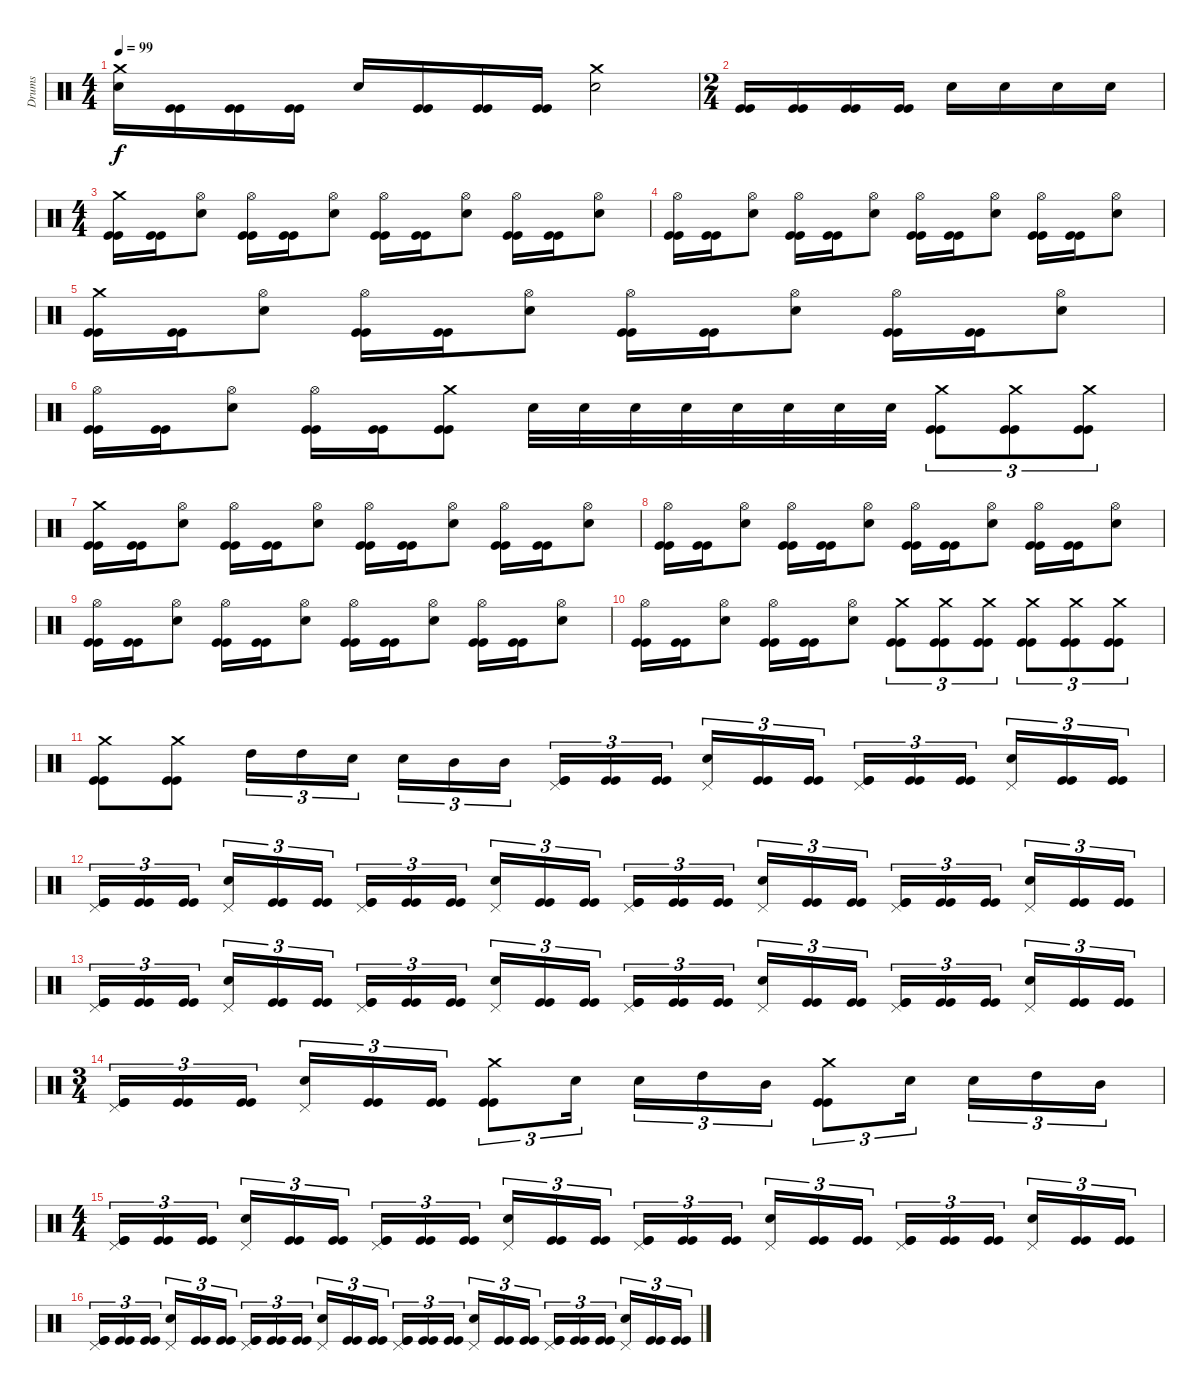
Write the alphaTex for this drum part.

\track ("Drums" "Drums") {instrument percussion}
\staff {score}
\articulation defaults
\ts (4 4)
\tempo 99
\clef neutral
\ks c
("Crash medium (hit)" "Snare (hit) 2").16{dy f} ("Kick (hit)" "Kick (hit)").16 ("Kick (hit)" "Kick (hit)").16 ("Kick (hit)" "Kick (hit)").16 "Snare (hit) 2".16 ("Kick (hit)" "Kick (hit)").16 ("Kick (hit)" "Kick (hit)").16 ("Kick (hit)" "Kick (hit)").16 ("Crash medium (hit)" "Snare (hit) 2").2 |
\ts (2 4)
("Kick (hit)" "Kick (hit)").16 ("Kick (hit)" "Kick (hit)").16 ("Kick (hit)" "Kick (hit)").16 ("Kick (hit)" "Kick (hit)").16 "Snare (hit) 2".16 "Snare (hit) 2".16 "Snare (hit) 2".16 "Snare (hit) 2".16 |
\ts (4 4)
("Crash medium (hit)" "Kick (hit)" "Kick (hit)").16 ("Kick (hit)" "Kick (hit)").16 ("Hi-Hat (open)" "Snare (hit) 2").8 ("Hi-Hat (open)" "Kick (hit)" "Kick (hit)").16 ("Kick (hit)" "Kick (hit)").16 ("Hi-Hat (open)" "Snare (hit) 2").8 ("Hi-Hat (open)" "Kick (hit)" "Kick (hit)").16 ("Kick (hit)" "Kick (hit)").16 ("Hi-Hat (open)" "Snare (hit) 2").8 ("Hi-Hat (open)" "Kick (hit)" "Kick (hit)").16 ("Kick (hit)" "Kick (hit)").16 ("Hi-Hat (open)" "Snare (hit) 2").8 |
("Hi-Hat (open)" "Kick (hit)" "Kick (hit)").16 ("Kick (hit)" "Kick (hit)").16 ("Hi-Hat (open)" "Snare (hit) 2").8 ("Hi-Hat (open)" "Kick (hit)" "Kick (hit)").16 ("Kick (hit)" "Kick (hit)").16 ("Hi-Hat (open)" "Snare (hit) 2").8 ("Hi-Hat (open)" "Kick (hit)" "Kick (hit)").16 ("Kick (hit)" "Kick (hit)").16 ("Hi-Hat (open)" "Snare (hit) 2").8 ("Hi-Hat (open)" "Kick (hit)" "Kick (hit)").16 ("Kick (hit)" "Kick (hit)").16 ("Hi-Hat (open)" "Snare (hit) 2").8 |
("Crash medium (hit)" "Kick (hit)" "Kick (hit)").16 ("Kick (hit)" "Kick (hit)").16 ("Hi-Hat (open)" "Snare (hit) 2").8 ("Hi-Hat (open)" "Kick (hit)" "Kick (hit)").16 ("Kick (hit)" "Kick (hit)").16 ("Hi-Hat (open)" "Snare (hit) 2").8 ("Hi-Hat (open)" "Kick (hit)" "Kick (hit)").16 ("Kick (hit)" "Kick (hit)").16 ("Hi-Hat (open)" "Snare (hit) 2").8 ("Hi-Hat (open)" "Kick (hit)" "Kick (hit)").16 ("Kick (hit)" "Kick (hit)").16 ("Hi-Hat (open)" "Snare (hit) 2").8 |
("Hi-Hat (open)" "Kick (hit)" "Kick (hit)").16 ("Kick (hit)" "Kick (hit)").16 ("Hi-Hat (open)" "Snare (hit) 2").8 ("Hi-Hat (open)" "Kick (hit)" "Kick (hit)").16 ("Kick (hit)" "Kick (hit)").16 ("Crash medium (hit)" "Kick (hit)" "Kick (hit)").8 "Snare (hit) 2".32 "Snare (hit) 2".32 "Snare (hit) 2".32 "Snare (hit) 2".32 "Snare (hit) 2".32 "Snare (hit) 2".32 "Snare (hit) 2".32 "Snare (hit) 2".32 ("Crash medium (hit)" "Kick (hit)" "Kick (hit)").8{tu (3 2)} ("Crash medium (hit)" "Kick (hit)" "Kick (hit)").8{tu (3 2)} ("Crash medium (hit)" "Kick (hit)" "Kick (hit)").8{tu (3 2)} |
("Crash medium (hit)" "Kick (hit)" "Kick (hit)").16 ("Kick (hit)" "Kick (hit)").16 ("Hi-Hat (open)" "Snare (hit) 2").8 ("Hi-Hat (open)" "Kick (hit)" "Kick (hit)").16 ("Kick (hit)" "Kick (hit)").16 ("Hi-Hat (open)" "Snare (hit) 2").8 ("Hi-Hat (open)" "Kick (hit)" "Kick (hit)").16 ("Kick (hit)" "Kick (hit)").16 ("Hi-Hat (open)" "Snare (hit) 2").8 ("Hi-Hat (open)" "Kick (hit)" "Kick (hit)").16 ("Kick (hit)" "Kick (hit)").16 ("Hi-Hat (open)" "Snare (hit) 2").8 |
("Hi-Hat (open)" "Kick (hit)" "Kick (hit)").16 ("Kick (hit)" "Kick (hit)").16 ("Hi-Hat (open)" "Snare (hit) 2").8 ("Hi-Hat (open)" "Kick (hit)" "Kick (hit)").16 ("Kick (hit)" "Kick (hit)").16 ("Hi-Hat (open)" "Snare (hit) 2").8 ("Hi-Hat (open)" "Kick (hit)" "Kick (hit)").16 ("Kick (hit)" "Kick (hit)").16 ("Hi-Hat (open)" "Snare (hit) 2").8 ("Hi-Hat (open)" "Kick (hit)" "Kick (hit)").16 ("Kick (hit)" "Kick (hit)").16 ("Hi-Hat (open)" "Snare (hit) 2").8 |
("Hi-Hat (open)" "Kick (hit)" "Kick (hit)").16 ("Kick (hit)" "Kick (hit)").16 ("Hi-Hat (open)" "Snare (hit) 2").8 ("Hi-Hat (open)" "Kick (hit)" "Kick (hit)").16 ("Kick (hit)" "Kick (hit)").16 ("Hi-Hat (open)" "Snare (hit) 2").8 ("Hi-Hat (open)" "Kick (hit)" "Kick (hit)").16 ("Kick (hit)" "Kick (hit)").16 ("Hi-Hat (open)" "Snare (hit) 2").8 ("Hi-Hat (open)" "Kick (hit)" "Kick (hit)").16 ("Kick (hit)" "Kick (hit)").16 ("Hi-Hat (open)" "Snare (hit) 2").8 |
("Hi-Hat (open)" "Kick (hit)" "Kick (hit)").16 ("Kick (hit)" "Kick (hit)").16 ("Hi-Hat (open)" "Snare (hit) 2").8 ("Hi-Hat (open)" "Kick (hit)" "Kick (hit)").16 ("Kick (hit)" "Kick (hit)").16 ("Hi-Hat (open)" "Snare (hit) 2").8 ("Crash medium (hit)" "Kick (hit)" "Kick (hit)").8{tu (3 2)} ("Crash medium (hit)" "Kick (hit)" "Kick (hit)").8{tu (3 2)} ("Crash medium (hit)" "Kick (hit)" "Kick (hit)").8{tu (3 2)} ("Crash medium (hit)" "Kick (hit)" "Kick (hit)").8{tu (3 2)} ("Crash medium (hit)" "Kick (hit)" "Kick (hit)").8{tu (3 2)} ("Crash medium (hit)" "Kick (hit)" "Kick (hit)").8{tu (3 2)} |
("Crash medium (hit)" "Kick (hit)" "Kick (hit)").8 ("Crash medium (hit)" "Kick (hit)" "Kick (hit)").8 "High Tom (hit)".16{tu (3 2)} "High Tom (hit)".16{tu (3 2)} "Snare (hit) 2".16{tu (3 2)} "Snare (hit) 2".16{tu (3 2)} "Mid Tom (hit)".16{tu (3 2)} "Mid Tom (hit)".16{tu (3 2)} ("Pedal Hi-Hat (hit)" "Kick (hit)" "Kick (hit)").16{tu (3 2)} ("Kick (hit)" "Kick (hit)").16{tu (3 2)} ("Kick (hit)" "Kick (hit)").16{tu (3 2)} ("Pedal Hi-Hat (hit)" "Snare (hit) 2").16{tu (3 2)} ("Kick (hit)" "Kick (hit)").16{tu (3 2)} ("Kick (hit)" "Kick (hit)").16{tu (3 2)} ("Pedal Hi-Hat (hit)" "Kick (hit)" "Kick (hit)").16{tu (3 2)} ("Kick (hit)" "Kick (hit)").16{tu (3 2)} ("Kick (hit)" "Kick (hit)").16{tu (3 2)} ("Pedal Hi-Hat (hit)" "Snare (hit) 2").16{tu (3 2)} ("Kick (hit)" "Kick (hit)").16{tu (3 2)} ("Kick (hit)" "Kick (hit)").16{tu (3 2)} |
("Pedal Hi-Hat (hit)" "Kick (hit)" "Kick (hit)").16{tu (3 2)} ("Kick (hit)" "Kick (hit)").16{tu (3 2)} ("Kick (hit)" "Kick (hit)").16{tu (3 2)} ("Pedal Hi-Hat (hit)" "Snare (hit) 2").16{tu (3 2)} ("Kick (hit)" "Kick (hit)").16{tu (3 2)} ("Kick (hit)" "Kick (hit)").16{tu (3 2)} ("Pedal Hi-Hat (hit)" "Kick (hit)" "Kick (hit)").16{tu (3 2)} ("Kick (hit)" "Kick (hit)").16{tu (3 2)} ("Kick (hit)" "Kick (hit)").16{tu (3 2)} ("Pedal Hi-Hat (hit)" "Snare (hit) 2").16{tu (3 2)} ("Kick (hit)" "Kick (hit)").16{tu (3 2)} ("Kick (hit)" "Kick (hit)").16{tu (3 2)} ("Pedal Hi-Hat (hit)" "Kick (hit)" "Kick (hit)").16{tu (3 2)} ("Kick (hit)" "Kick (hit)").16{tu (3 2)} ("Kick (hit)" "Kick (hit)").16{tu (3 2)} ("Pedal Hi-Hat (hit)" "Snare (hit) 2").16{tu (3 2)} ("Kick (hit)" "Kick (hit)").16{tu (3 2)} ("Kick (hit)" "Kick (hit)").16{tu (3 2)} ("Pedal Hi-Hat (hit)" "Kick (hit)" "Kick (hit)").16{tu (3 2)} ("Kick (hit)" "Kick (hit)").16{tu (3 2)} ("Kick (hit)" "Kick (hit)").16{tu (3 2)} ("Pedal Hi-Hat (hit)" "Snare (hit) 2").16{tu (3 2)} ("Kick (hit)" "Kick (hit)").16{tu (3 2)} ("Kick (hit)" "Kick (hit)").16{tu (3 2)} |
("Pedal Hi-Hat (hit)" "Kick (hit)" "Kick (hit)").16{tu (3 2)} ("Kick (hit)" "Kick (hit)").16{tu (3 2)} ("Kick (hit)" "Kick (hit)").16{tu (3 2)} ("Pedal Hi-Hat (hit)" "Snare (hit) 2").16{tu (3 2)} ("Kick (hit)" "Kick (hit)").16{tu (3 2)} ("Kick (hit)" "Kick (hit)").16{tu (3 2)} ("Pedal Hi-Hat (hit)" "Kick (hit)" "Kick (hit)").16{tu (3 2)} ("Kick (hit)" "Kick (hit)").16{tu (3 2)} ("Kick (hit)" "Kick (hit)").16{tu (3 2)} ("Pedal Hi-Hat (hit)" "Snare (hit) 2").16{tu (3 2)} ("Kick (hit)" "Kick (hit)").16{tu (3 2)} ("Kick (hit)" "Kick (hit)").16{tu (3 2)} ("Pedal Hi-Hat (hit)" "Kick (hit)" "Kick (hit)").16{tu (3 2)} ("Kick (hit)" "Kick (hit)").16{tu (3 2)} ("Kick (hit)" "Kick (hit)").16{tu (3 2)} ("Pedal Hi-Hat (hit)" "Snare (hit) 2").16{tu (3 2)} ("Kick (hit)" "Kick (hit)").16{tu (3 2)} ("Kick (hit)" "Kick (hit)").16{tu (3 2)} ("Pedal Hi-Hat (hit)" "Kick (hit)" "Kick (hit)").16{tu (3 2)} ("Kick (hit)" "Kick (hit)").16{tu (3 2)} ("Kick (hit)" "Kick (hit)").16{tu (3 2)} ("Pedal Hi-Hat (hit)" "Snare (hit) 2").16{tu (3 2)} ("Kick (hit)" "Kick (hit)").16{tu (3 2)} ("Kick (hit)" "Kick (hit)").16{tu (3 2)} |
\ts (3 4)
("Pedal Hi-Hat (hit)" "Kick (hit)" "Kick (hit)").16{tu (3 2)} ("Kick (hit)" "Kick (hit)").16{tu (3 2)} ("Kick (hit)" "Kick (hit)").16{tu (3 2)} ("Pedal Hi-Hat (hit)" "Snare (hit) 2").16{tu (3 2)} ("Kick (hit)" "Kick (hit)").16{tu (3 2)} ("Kick (hit)" "Kick (hit)").16{tu (3 2)} ("Crash medium (hit)" "Kick (hit)" "Kick (hit)").8{tu (3 2)} "Snare (hit) 2".16{tu (3 2)} "Snare (hit) 2".16{tu (3 2)} "High Tom (hit)".16{tu (3 2)} "Mid Tom (hit)".16{tu (3 2)} ("Crash medium (hit)" "Kick (hit)" "Kick (hit)").8{tu (3 2)} "Snare (hit) 2".16{tu (3 2)} "Snare (hit) 2".16{tu (3 2)} "High Tom (hit)".16{tu (3 2)} "Mid Tom (hit)".16{tu (3 2)} |
\ts (4 4)
("Pedal Hi-Hat (hit)" "Kick (hit)" "Kick (hit)").16{tu (3 2)} ("Kick (hit)" "Kick (hit)").16{tu (3 2)} ("Kick (hit)" "Kick (hit)").16{tu (3 2)} ("Pedal Hi-Hat (hit)" "Snare (hit) 2").16{tu (3 2)} ("Kick (hit)" "Kick (hit)").16{tu (3 2)} ("Kick (hit)" "Kick (hit)").16{tu (3 2)} ("Pedal Hi-Hat (hit)" "Kick (hit)" "Kick (hit)").16{tu (3 2)} ("Kick (hit)" "Kick (hit)").16{tu (3 2)} ("Kick (hit)" "Kick (hit)").16{tu (3 2)} ("Pedal Hi-Hat (hit)" "Snare (hit) 2").16{tu (3 2)} ("Kick (hit)" "Kick (hit)").16{tu (3 2)} ("Kick (hit)" "Kick (hit)").16{tu (3 2)} ("Pedal Hi-Hat (hit)" "Kick (hit)" "Kick (hit)").16{tu (3 2)} ("Kick (hit)" "Kick (hit)").16{tu (3 2)} ("Kick (hit)" "Kick (hit)").16{tu (3 2)} ("Pedal Hi-Hat (hit)" "Snare (hit) 2").16{tu (3 2)} ("Kick (hit)" "Kick (hit)").16{tu (3 2)} ("Kick (hit)" "Kick (hit)").16{tu (3 2)} ("Pedal Hi-Hat (hit)" "Kick (hit)" "Kick (hit)").16{tu (3 2)} ("Kick (hit)" "Kick (hit)").16{tu (3 2)} ("Kick (hit)" "Kick (hit)").16{tu (3 2)} ("Pedal Hi-Hat (hit)" "Snare (hit) 2").16{tu (3 2)} ("Kick (hit)" "Kick (hit)").16{tu (3 2)} ("Kick (hit)" "Kick (hit)").16{tu (3 2)} |
("Pedal Hi-Hat (hit)" "Kick (hit)" "Kick (hit)").16{tu (3 2)} ("Kick (hit)" "Kick (hit)").16{tu (3 2)} ("Kick (hit)" "Kick (hit)").16{tu (3 2)} ("Pedal Hi-Hat (hit)" "Snare (hit) 2").16{tu (3 2)} ("Kick (hit)" "Kick (hit)").16{tu (3 2)} ("Kick (hit)" "Kick (hit)").16{tu (3 2)} ("Pedal Hi-Hat (hit)" "Kick (hit)" "Kick (hit)").16{tu (3 2)} ("Kick (hit)" "Kick (hit)").16{tu (3 2)} ("Kick (hit)" "Kick (hit)").16{tu (3 2)} ("Pedal Hi-Hat (hit)" "Snare (hit) 2").16{tu (3 2)} ("Kick (hit)" "Kick (hit)").16{tu (3 2)} ("Kick (hit)" "Kick (hit)").16{tu (3 2)} ("Pedal Hi-Hat (hit)" "Kick (hit)" "Kick (hit)").16{tu (3 2)} ("Kick (hit)" "Kick (hit)").16{tu (3 2)} ("Kick (hit)" "Kick (hit)").16{tu (3 2)} ("Pedal Hi-Hat (hit)" "Snare (hit) 2").16{tu (3 2)} ("Kick (hit)" "Kick (hit)").16{tu (3 2)} ("Kick (hit)" "Kick (hit)").16{tu (3 2)} ("Pedal Hi-Hat (hit)" "Kick (hit)" "Kick (hit)").16{tu (3 2)} ("Kick (hit)" "Kick (hit)").16{tu (3 2)} ("Kick (hit)" "Kick (hit)").16{tu (3 2)} ("Pedal Hi-Hat (hit)" "Snare (hit) 2").16{tu (3 2)} ("Kick (hit)" "Kick (hit)").16{tu (3 2)} ("Kick (hit)" "Kick (hit)").16{tu (3 2)}
